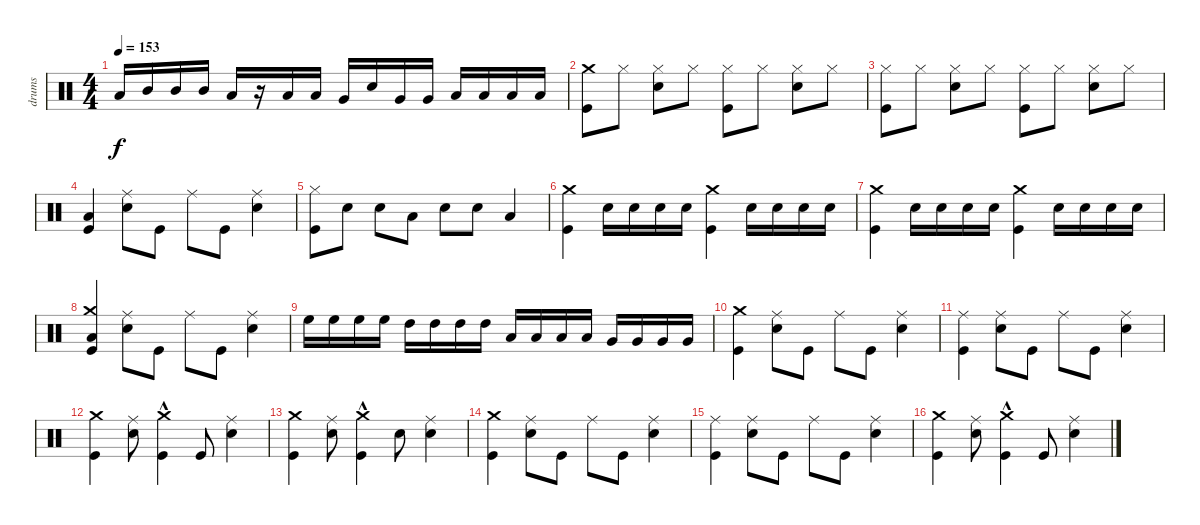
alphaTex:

\track ("drums" "drums") {instrument percussion}
\staff {score}
\articulation defaults
\ts (4 4)
\tempo 153
\clef neutral
\ks c "Low Tom (hit)".16{dy f} "Mid Tom (hit)".16 "Mid Tom (hit)".16 "Mid Tom (hit)".16 "Low Tom (hit)".16
r.16 "Low Tom (hit)".16 "Low Tom (hit)".16 "Very Low Tom (hit)".16 "Snare (hit) 2".16 "Very Low Tom (hit)".16 "Very Low Tom (hit)".16 "Low Floor Tom (hit)".16 "Low Floor Tom (hit)".16 "Low Floor Tom (hit)".16 "Low Floor Tom (hit)".16 |
("Crash medium (hit)" "Kick (hit)").8 "Hi-Hat (closed)".8 ("Hi-Hat (closed)" "Snare (hit) 2").8 "Hi-Hat (closed)".8 ("Kick (hit)" "Hi-Hat (closed)").8 "Hi-Hat (closed)".8 ("Snare (hit) 2" "Hi-Hat (closed)").8 "Hi-Hat (closed)".8 |
("Kick (hit)" "Hi-Hat (closed)").8 "Hi-Hat (closed)".8 ("Snare (hit) 2" "Hi-Hat (closed)").8 "Hi-Hat (closed)".8 ("Kick (hit)" "Hi-Hat (closed)").8 "Hi-Hat (closed)".8 ("Hi-Hat (closed)" "Snare (hit) 2").8 "Hi-Hat (closed)".8 |
("Low Tom (hit)" "Kick (hit)").4 ("Ride (middle)" "Snare (hit) 2").8 "Kick (hit)".8 "Ride (middle)".8 "Kick (hit)".8 ("Ride (middle)" "Snare (hit) 2").4 |
("Hi-Hat (closed)" "Kick (hit)").8 "Snare (hit) 2".8 "Snare (hit) 2".8 "Low Tom (hit)".8 "Snare (hit) 2".8 "Snare (hit) 2".8 "Low Tom (hit)".4 |
("Kick (hit)" "Crash medium (hit)").4 "Snare (hit) 2".16 "Snare (hit) 2".16 "Snare (hit) 2".16 "Snare (hit) 2".16 ("Kick (hit)" "Crash medium (hit)").4 "Snare (hit) 2".16 "Snare (hit) 2".16 "Snare (hit) 2".16 "Snare (hit) 2".16 |
("Kick (hit)" "Crash medium (hit)").4 "Snare (hit) 2".16 "Snare (hit) 2".16 "Snare (hit) 2".16 "Snare (hit) 2".16 ("Kick (hit)" "Crash medium (hit)").4 "Snare (hit) 2".16 "Snare (hit) 2".16 "Snare (hit) 2".16 "Snare (hit) 2".16 |
("Low Tom (hit)" "Kick (hit)" "Crash medium (hit)").4 ("Ride (middle)" "Snare (hit) 2").8 "Kick (hit)".8 "Ride (middle)".8 "Kick (hit)".8 ("Ride (middle)" "Snare (hit) 2").4 |
"High Floor Tom (hit)".16 "High Floor Tom (hit)".16 "High Floor Tom (hit)".16 "High Floor Tom (hit)".16 "High Tom (hit)".16 "High Tom (hit)".16 "High Tom (hit)".16 "High Tom (hit)".16 "Low Tom (hit)".16 "Low Tom (hit)".16 "Low Tom (hit)".16 "Low Tom (hit)".16 "Very Low Tom (hit)".16 "Very Low Tom (hit)".16 "Very Low Tom (hit)".16 "Very Low Tom (hit)".16 |
("Crash medium (hit)" "Kick (hit)").4 ("Ride (middle)" "Snare (hit) 2").8 "Kick (hit)".8 "Ride (middle)".8 "Kick (hit)".8 ("Ride (middle)" "Snare (hit) 2").4 |
("Kick (hit)" "Ride (middle)").4 ("Ride (middle)" "Snare (hit) 2").8 "Kick (hit)".8 "Ride (middle)".8 "Kick (hit)".8 ("Ride (middle)" "Snare (hit) 2").4 |
("Kick (hit)" "Crash medium (hit)").4 ("Ride (middle)" "Snare (hit) 2").8 ("Crash medium (hit)"{hac} "Kick (hit)").4 "Kick (hit)".8 ("Ride (middle)" "Snare (hit) 2").4 |
("Kick (hit)" "Crash medium (hit)").4 ("Ride (middle)" "Snare (hit) 2").8 ("Crash medium (hit)"{hac} "Kick (hit)").4 "Snare (hit) 2".8 ("Ride (middle)" "Snare (hit) 2").4 |
("Crash medium (hit)" "Kick (hit)").4 ("Ride (middle)" "Snare (hit) 2").8 "Kick (hit)".8 "Ride (middle)".8 "Kick (hit)".8 ("Ride (middle)" "Snare (hit) 2").4 |
("Kick (hit)" "Ride (middle)").4 ("Ride (middle)" "Snare (hit) 2").8 "Kick (hit)".8 "Ride (middle)".8 "Kick (hit)".8 ("Ride (middle)" "Snare (hit) 2").4 |
("Kick (hit)" "Crash medium (hit)").4 ("Ride (middle)" "Snare (hit) 2").8 ("Crash medium (hit)"{hac} "Kick (hit)").4 "Kick (hit)".8 ("Ride (middle)" "Snare (hit) 2").4
